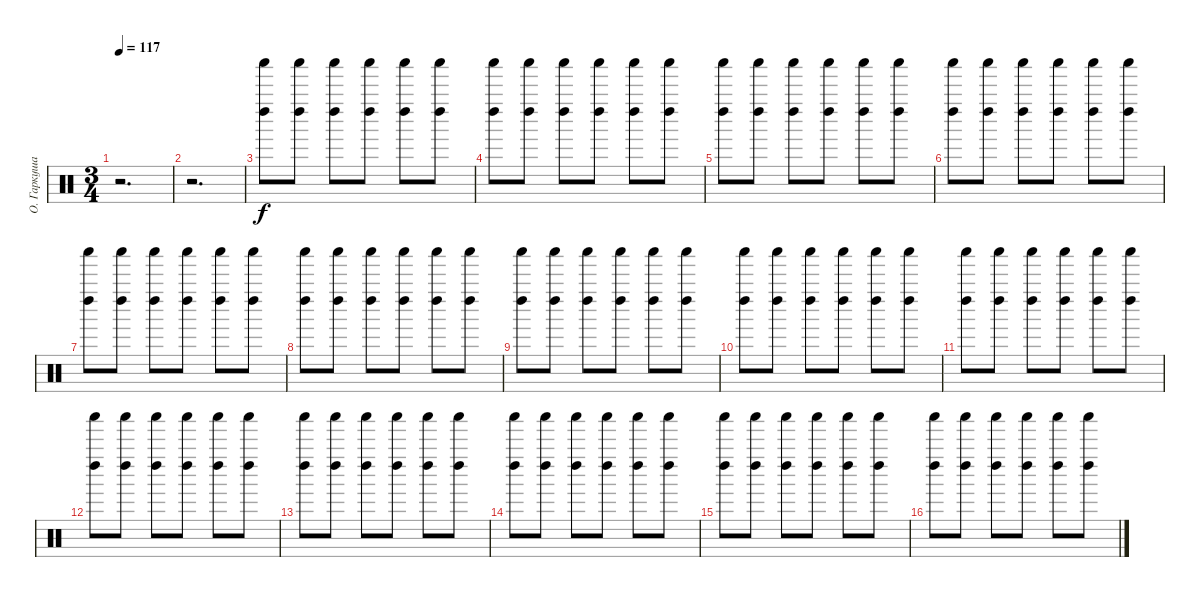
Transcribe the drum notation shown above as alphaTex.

\track ("О. Гаркуша" "О. Гаркуша") {instrument percussion}
\staff {score}
\articulation defaults
\ts (3 4)
\tempo 117
\clef neutral
\ks c
r.2{d dy f} |
r.2{d} |
("Left Maraca (hit)" "Shaker (hit)").8 ("Left Maraca (hit)" "Shaker (hit)").8 ("Left Maraca (hit)" "Shaker (hit)").8 ("Left Maraca (hit)" "Shaker (hit)").8 ("Left Maraca (hit)" "Shaker (hit)").8 ("Left Maraca (hit)" "Shaker (hit)").8 |
("Left Maraca (hit)" "Shaker (hit)").8 ("Left Maraca (hit)" "Shaker (hit)").8 ("Left Maraca (hit)" "Shaker (hit)").8 ("Left Maraca (hit)" "Shaker (hit)").8 ("Left Maraca (hit)" "Shaker (hit)").8 ("Left Maraca (hit)" "Shaker (hit)").8 |
("Left Maraca (hit)" "Shaker (hit)").8 ("Left Maraca (hit)" "Shaker (hit)").8 ("Left Maraca (hit)" "Shaker (hit)").8 ("Left Maraca (hit)" "Shaker (hit)").8 ("Left Maraca (hit)" "Shaker (hit)").8 ("Left Maraca (hit)" "Shaker (hit)").8 |
("Left Maraca (hit)" "Shaker (hit)").8 ("Left Maraca (hit)" "Shaker (hit)").8 ("Left Maraca (hit)" "Shaker (hit)").8 ("Left Maraca (hit)" "Shaker (hit)").8 ("Left Maraca (hit)" "Shaker (hit)").8 ("Left Maraca (hit)" "Shaker (hit)").8 |
("Left Maraca (hit)" "Shaker (hit)").8 ("Left Maraca (hit)" "Shaker (hit)").8 ("Left Maraca (hit)" "Shaker (hit)").8 ("Left Maraca (hit)" "Shaker (hit)").8 ("Left Maraca (hit)" "Shaker (hit)").8 ("Left Maraca (hit)" "Shaker (hit)").8 |
("Left Maraca (hit)" "Shaker (hit)").8 ("Left Maraca (hit)" "Shaker (hit)").8 ("Left Maraca (hit)" "Shaker (hit)").8 ("Left Maraca (hit)" "Shaker (hit)").8 ("Left Maraca (hit)" "Shaker (hit)").8 ("Left Maraca (hit)" "Shaker (hit)").8 |
("Left Maraca (hit)" "Shaker (hit)").8 ("Left Maraca (hit)" "Shaker (hit)").8 ("Left Maraca (hit)" "Shaker (hit)").8 ("Left Maraca (hit)" "Shaker (hit)").8 ("Left Maraca (hit)" "Shaker (hit)").8 ("Left Maraca (hit)" "Shaker (hit)").8 |
("Left Maraca (hit)" "Shaker (hit)").8 ("Left Maraca (hit)" "Shaker (hit)").8 ("Left Maraca (hit)" "Shaker (hit)").8 ("Left Maraca (hit)" "Shaker (hit)").8 ("Left Maraca (hit)" "Shaker (hit)").8 ("Left Maraca (hit)" "Shaker (hit)").8 |
("Left Maraca (hit)" "Shaker (hit)").8 ("Left Maraca (hit)" "Shaker (hit)").8 ("Left Maraca (hit)" "Shaker (hit)").8 ("Left Maraca (hit)" "Shaker (hit)").8 ("Left Maraca (hit)" "Shaker (hit)").8 ("Left Maraca (hit)" "Shaker (hit)").8 |
("Left Maraca (hit)" "Shaker (hit)").8 ("Left Maraca (hit)" "Shaker (hit)").8 ("Left Maraca (hit)" "Shaker (hit)").8 ("Left Maraca (hit)" "Shaker (hit)").8 ("Left Maraca (hit)" "Shaker (hit)").8 ("Left Maraca (hit)" "Shaker (hit)").8 |
("Left Maraca (hit)" "Shaker (hit)").8 ("Left Maraca (hit)" "Shaker (hit)").8 ("Left Maraca (hit)" "Shaker (hit)").8 ("Left Maraca (hit)" "Shaker (hit)").8 ("Left Maraca (hit)" "Shaker (hit)").8 ("Left Maraca (hit)" "Shaker (hit)").8 |
("Left Maraca (hit)" "Shaker (hit)").8 ("Left Maraca (hit)" "Shaker (hit)").8 ("Left Maraca (hit)" "Shaker (hit)").8 ("Left Maraca (hit)" "Shaker (hit)").8 ("Left Maraca (hit)" "Shaker (hit)").8 ("Left Maraca (hit)" "Shaker (hit)").8 |
("Left Maraca (hit)" "Shaker (hit)").8 ("Left Maraca (hit)" "Shaker (hit)").8 ("Left Maraca (hit)" "Shaker (hit)").8 ("Left Maraca (hit)" "Shaker (hit)").8 ("Left Maraca (hit)" "Shaker (hit)").8 ("Left Maraca (hit)" "Shaker (hit)").8 |
("Left Maraca (hit)" "Shaker (hit)").8 ("Left Maraca (hit)" "Shaker (hit)").8 ("Left Maraca (hit)" "Shaker (hit)").8 ("Left Maraca (hit)" "Shaker (hit)").8 ("Left Maraca (hit)" "Shaker (hit)").8 ("Left Maraca (hit)" "Shaker (hit)").8
